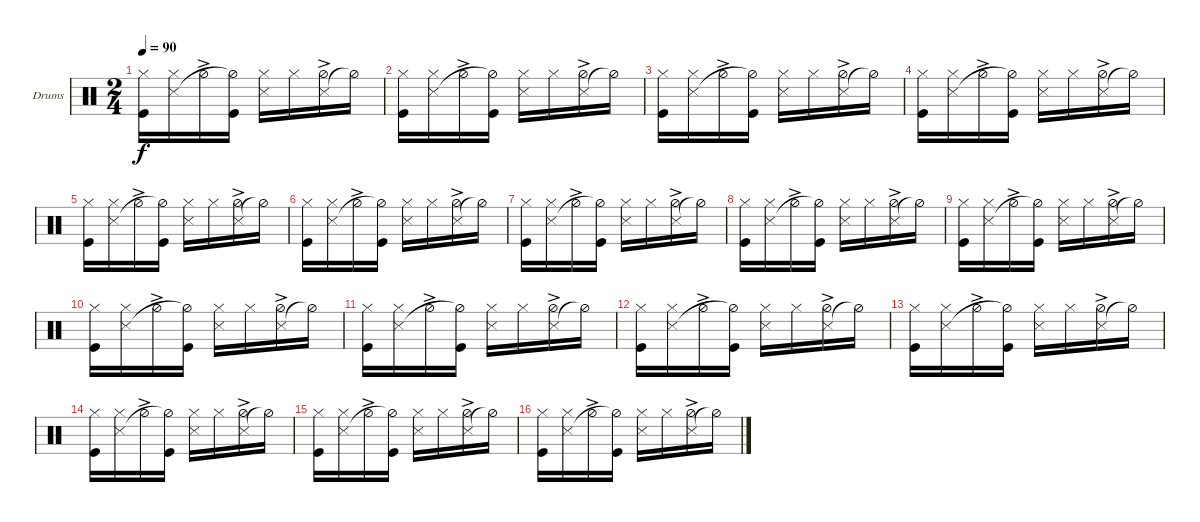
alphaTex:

\defaultSystemsLayout 4
\bracketExtendMode groupsimilarinstruments
\firstSystemTrackNameOrientation horizontal
\otherSystemsTrackNameOrientation horizontal
\track ("Bateria" "Drums") {instrument percussion}
\staff {score}
\articulation defaults
\ts (2 4)
\tempo 90
\clef neutral
\scale
0.973518
\ks aminor
("Hi-Hat (closed)" "Kick (hit)").16{dy f} ("Hi-Hat (closed)" "Snare (side stick) 3").16 "Hi-Hat (half)"{ac}.16 ("Kick (hit)" "Hi-Hat (half)"{t}).16 ("Hi-Hat (closed)" "Snare (side stick) 3").16 "Hi-Hat (closed)".16 ("Snare (side stick) 3" "Hi-Hat (half)"{ac}).16 "Hi-Hat (half)"{t}.16 |
\scale
0.973518 ("Hi-Hat (closed)" "Kick (hit)").16 ("Hi-Hat (closed)" "Snare (side stick) 3").16 "Hi-Hat (half)"{ac}.16 ("Kick (hit)" "Hi-Hat (half)"{t}).16 ("Hi-Hat (closed)" "Snare (side stick) 3").16 "Hi-Hat (closed)".16 ("Snare (side stick) 3" "Hi-Hat (half)"{ac}).16 "Hi-Hat (half)"{t}.16 |
\scale
0.973518 ("Hi-Hat (closed)" "Kick (hit)").16 ("Hi-Hat (closed)" "Snare (side stick) 3").16 "Hi-Hat (half)"{ac}.16 ("Kick (hit)" "Hi-Hat (half)"{t}).16 ("Hi-Hat (closed)" "Snare (side stick) 3").16 "Hi-Hat (closed)".16 ("Snare (side stick) 3" "Hi-Hat (half)"{ac}).16 "Hi-Hat (half)"{t}.16 |
\scale
1.10593 ("Hi-Hat (closed)" "Kick (hit)").16 ("Hi-Hat (closed)" "Snare (side stick) 3").16 "Hi-Hat (half)"{ac}.16 ("Kick (hit)" "Hi-Hat (half)"{t}).16 ("Hi-Hat (closed)" "Snare (side stick) 3").16 "Hi-Hat (closed)".16 ("Snare (side stick) 3" "Hi-Hat (half)"{ac}).16 "Hi-Hat (half)"{t}.16 |
\scale
0.973518 ("Hi-Hat (closed)" "Kick (hit)").16 ("Hi-Hat (closed)" "Snare (side stick) 3").16 "Hi-Hat (half)"{ac}.16 ("Kick (hit)" "Hi-Hat (half)"{t}).16 ("Hi-Hat (closed)" "Snare (side stick) 3").16 "Hi-Hat (closed)".16 ("Snare (side stick) 3" "Hi-Hat (half)"{ac}).16 "Hi-Hat (half)"{t}.16 |
\scale
0.973518 ("Hi-Hat (closed)" "Kick (hit)").16 ("Hi-Hat (closed)" "Snare (side stick) 3").16 "Hi-Hat (half)"{ac}.16 ("Kick (hit)" "Hi-Hat (half)"{t}).16 ("Hi-Hat (closed)" "Snare (side stick) 3").16 "Hi-Hat (closed)".16 ("Snare (side stick) 3" "Hi-Hat (half)"{ac}).16 "Hi-Hat (half)"{t}.16 |
\scale
0.973518 ("Hi-Hat (closed)" "Kick (hit)").16 ("Hi-Hat (closed)" "Snare (side stick) 3").16 "Hi-Hat (half)"{ac}.16 ("Kick (hit)" "Hi-Hat (half)"{t}).16 ("Hi-Hat (closed)" "Snare (side stick) 3").16 "Hi-Hat (closed)".16 ("Snare (side stick) 3" "Hi-Hat (half)"{ac}).16 "Hi-Hat (half)"{t}.16 |
\scale
0.973518 ("Hi-Hat (closed)" "Kick (hit)").16 ("Hi-Hat (closed)" "Snare (side stick) 3").16 "Hi-Hat (half)"{ac}.16 ("Kick (hit)" "Hi-Hat (half)"{t}).16 ("Hi-Hat (closed)" "Snare (side stick) 3").16 "Hi-Hat (closed)".16 ("Snare (side stick) 3" "Hi-Hat (half)"{ac}).16 "Hi-Hat (half)"{t}.16 |
\scale
1.10593 ("Hi-Hat (closed)" "Kick (hit)").16 ("Hi-Hat (closed)" "Snare (side stick) 3").16 "Hi-Hat (half)"{ac}.16 ("Kick (hit)" "Hi-Hat (half)"{t}).16 ("Hi-Hat (closed)" "Snare (side stick) 3").16 "Hi-Hat (closed)".16 ("Snare (side stick) 3" "Hi-Hat (half)"{ac}).16 "Hi-Hat (half)"{t}.16 |
\scale
0.973518 ("Hi-Hat (closed)" "Kick (hit)").16 ("Hi-Hat (closed)" "Snare (side stick) 3").16 "Hi-Hat (half)"{ac}.16 ("Kick (hit)" "Hi-Hat (half)"{t}).16 ("Hi-Hat (closed)" "Snare (side stick) 3").16 "Hi-Hat (closed)".16 ("Snare (side stick) 3" "Hi-Hat (half)"{ac}).16 "Hi-Hat (half)"{t}.16 |
\scale
0.973518 ("Hi-Hat (closed)" "Kick (hit)").16 ("Hi-Hat (closed)" "Snare (side stick) 3").16 "Hi-Hat (half)"{ac}.16 ("Kick (hit)" "Hi-Hat (half)"{t}).16 ("Hi-Hat (closed)" "Snare (side stick) 3").16 "Hi-Hat (closed)".16 ("Snare (side stick) 3" "Hi-Hat (half)"{ac}).16 "Hi-Hat (half)"{t}.16 |
\scale
0.973518 ("Hi-Hat (closed)" "Kick (hit)").16 ("Hi-Hat (closed)" "Snare (side stick) 3").16 "Hi-Hat (half)"{ac}.16 ("Kick (hit)" "Hi-Hat (half)"{t}).16 ("Hi-Hat (closed)" "Snare (side stick) 3").16 "Hi-Hat (closed)".16 ("Snare (side stick) 3" "Hi-Hat (half)"{ac}).16 "Hi-Hat (half)"{t}.16 |
\scale
0.973518 ("Hi-Hat (closed)" "Kick (hit)").16 ("Hi-Hat (closed)" "Snare (side stick) 3").16 "Hi-Hat (half)"{ac}.16 ("Kick (hit)" "Hi-Hat (half)"{t}).16 ("Hi-Hat (closed)" "Snare (side stick) 3").16 "Hi-Hat (closed)".16 ("Snare (side stick) 3" "Hi-Hat (half)"{ac}).16 "Hi-Hat (half)"{t}.16 |
\scale
1.10593 ("Hi-Hat (closed)" "Kick (hit)").16 ("Hi-Hat (closed)" "Snare (side stick) 3").16 "Hi-Hat (half)"{ac}.16 ("Kick (hit)" "Hi-Hat (half)"{t}).16 ("Hi-Hat (closed)" "Snare (side stick) 3").16 "Hi-Hat (closed)".16 ("Snare (side stick) 3" "Hi-Hat (half)"{ac}).16 "Hi-Hat (half)"{t}.16 |
\scale
0.973518 ("Hi-Hat (closed)" "Kick (hit)").16 ("Hi-Hat (closed)" "Snare (side stick) 3").16 "Hi-Hat (half)"{ac}.16 ("Kick (hit)" "Hi-Hat (half)"{t}).16 ("Hi-Hat (closed)" "Snare (side stick) 3").16 "Hi-Hat (closed)".16 ("Snare (side stick) 3" "Hi-Hat (half)"{ac}).16 "Hi-Hat (half)"{t}.16 |
\scale
0.973518 ("Hi-Hat (closed)" "Kick (hit)").16 ("Hi-Hat (closed)" "Snare (side stick) 3").16 "Hi-Hat (half)"{ac}.16 ("Kick (hit)" "Hi-Hat (half)"{t}).16 ("Hi-Hat (closed)" "Snare (side stick) 3").16 "Hi-Hat (closed)".16 ("Snare (side stick) 3" "Hi-Hat (half)"{ac}).16 "Hi-Hat (half)"{t}.16
